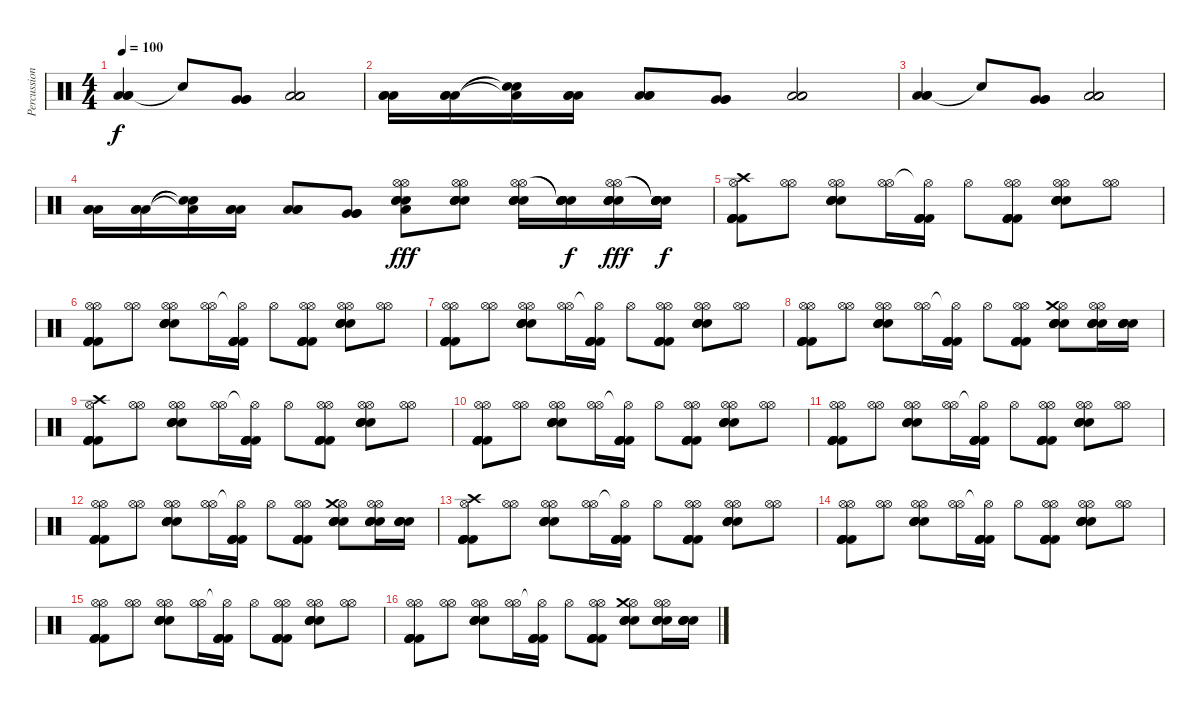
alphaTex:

\track ("Percussion" "Percussion") {instrument percussion}
\staff {score}
\articulation defaults
\ts (4 4)
\tempo 100
\clef neutral
\ks c
("Low Floor Tom (hit)" "Low Floor Tom (hit)" "Low Floor Tom (hit)").4{dy f} "Snare (hit)"{t}.8 ("Very Low Tom (hit)" "Very Low Tom (hit)" "Very Low Tom (hit)").8 ("Low Floor Tom (hit)" "Low Floor Tom (hit)" "Low Floor Tom (hit)").2 |
("Low Tom (hit)" "Low Tom (hit)" "Low Tom (hit)").16 ("Low Tom (hit)" "Low Tom (hit)" "Low Tom (hit)").16 ("Low Tom (hit)"{t} "Snare (hit)"{t} "Snare (hit)"{t}).16 ("Low Tom (hit)" "Low Tom (hit)" "Low Tom (hit)").16 ("Low Tom (hit)" "Low Tom (hit)" "Low Tom (hit)").8 ("Very Low Tom (hit)" "Very Low Tom (hit)" "Very Low Tom (hit)").8 ("Low Floor Tom (hit)" "Low Floor Tom (hit)" "Low Floor Tom (hit)").2 |
("Low Floor Tom (hit)" "Low Floor Tom (hit)" "Low Floor Tom (hit)").4 "Snare (hit)"{t}.8 ("Very Low Tom (hit)" "Very Low Tom (hit)" "Very Low Tom (hit)").8 ("Low Floor Tom (hit)" "Low Floor Tom (hit)" "Low Floor Tom (hit)").2 |
("Low Tom (hit)" "Low Tom (hit)" "Low Tom (hit)").16 ("Low Tom (hit)" "Low Tom (hit)" "Low Tom (hit)").16 ("Low Tom (hit)"{t} "Snare (hit)"{t} "Snare (hit)"{t}).16 ("Low Tom (hit)" "Low Tom (hit)" "Low Tom (hit)").16 ("Low Tom (hit)" "Low Tom (hit)" "Low Tom (hit)").8 ("Very Low Tom (hit)" "Very Low Tom (hit)" "Very Low Tom (hit)").8 ("Hi-Hat (open)" "Low Floor Tom (hit)" "Electric Snare (hit)" "Electric Snare (hit)" "Electric Snare (hit)" "Hi-Hat (open)").8{dy fff} ("Hi-Hat (open)" "Electric Snare (hit)" "Electric Snare (hit)" "Electric Snare (hit)" "Electric Snare (hit)" "Hi-Hat (open)").8 ("Hi-Hat (open)" "Electric Snare (hit)" "Electric Snare (hit)" "Electric Snare (hit)" "Electric Snare (hit)" "Hi-Hat (open)").16 ("Snare (hit)"{t} "Electric Snare (hit)" "Electric Snare (hit)" "Electric Snare (hit)" "Electric Snare (hit)" "Snare (hit)"{t}).16{dy f} ("Hi-Hat (open)" "Electric Snare (hit)" "Electric Snare (hit)" "Electric Snare (hit)" "Electric Snare (hit)" "Hi-Hat (open)").16{dy fff} ("Snare (hit)"{t} "Electric Snare (hit)" "Electric Snare (hit)" "Electric Snare (hit)" "Electric Snare (hit)" "Snare (hit)"{t}).16{dy f} |
("Hi-Hat (open)" "Kick (hit) 2" "Kick (hit) 2" "Kick (hit) 2" "Kick (hit) 2" "Crash high (hit)").8 ("Hi-Hat (open)" "Hi-Hat (open)").8 ("Hi-Hat (open)" "Electric Snare (hit)" "Electric Snare (hit)" "Electric Snare (hit)" "Electric Snare (hit)" "Hi-Hat (open)").8 ("Hi-Hat (open)" "Hi-Hat (open)").16 ("Hi-Hat (open)"{t} "Kick (hit) 2" "Kick (hit) 2" "Kick (hit) 2" "Kick (hit) 2").16 "Hi-Hat (open)".8 ("Hi-Hat (open)" "Kick (hit) 2" "Kick (hit) 2" "Kick (hit) 2" "Kick (hit) 2" "Hi-Hat (open)").8 ("Hi-Hat (open)" "Electric Snare (hit)" "Electric Snare (hit)" "Electric Snare (hit)" "Electric Snare (hit)" "Hi-Hat (open)").8 ("Hi-Hat (open)" "Hi-Hat (open)").8 |
("Hi-Hat (open)" "Kick (hit) 2" "Kick (hit) 2" "Kick (hit) 2" "Kick (hit) 2" "Hi-Hat (open)").8 ("Hi-Hat (open)" "Hi-Hat (open)").8 ("Hi-Hat (open)" "Electric Snare (hit)" "Electric Snare (hit)" "Electric Snare (hit)" "Electric Snare (hit)" "Hi-Hat (open)").8 ("Hi-Hat (open)" "Hi-Hat (open)").16 ("Hi-Hat (open)"{t} "Kick (hit) 2" "Kick (hit) 2" "Kick (hit) 2" "Kick (hit) 2").16 "Hi-Hat (open)".8 ("Hi-Hat (open)" "Kick (hit) 2" "Kick (hit) 2" "Kick (hit) 2" "Kick (hit) 2" "Hi-Hat (open)").8 ("Hi-Hat (open)" "Electric Snare (hit)" "Electric Snare (hit)" "Electric Snare (hit)" "Electric Snare (hit)" "Hi-Hat (open)").8 ("Hi-Hat (open)" "Hi-Hat (open)").8 |
("Hi-Hat (open)" "Kick (hit) 2" "Kick (hit) 2" "Kick (hit) 2" "Kick (hit) 2" "Hi-Hat (open)").8 ("Hi-Hat (open)" "Hi-Hat (open)").8 ("Hi-Hat (open)" "Electric Snare (hit)" "Electric Snare (hit)" "Electric Snare (hit)" "Electric Snare (hit)" "Hi-Hat (open)").8 ("Hi-Hat (open)" "Hi-Hat (open)").16 ("Hi-Hat (open)"{t} "Kick (hit) 2" "Kick (hit) 2" "Kick (hit) 2" "Kick (hit) 2").16 "Hi-Hat (open)".8 ("Hi-Hat (open)" "Kick (hit) 2" "Kick (hit) 2" "Kick (hit) 2" "Kick (hit) 2" "Hi-Hat (open)").8 ("Hi-Hat (open)" "Electric Snare (hit)" "Electric Snare (hit)" "Electric Snare (hit)" "Electric Snare (hit)" "Hi-Hat (open)").8 ("Hi-Hat (open)" "Hi-Hat (open)").8 |
("Hi-Hat (open)" "Kick (hit) 2" "Kick (hit) 2" "Kick (hit) 2" "Kick (hit) 2" "Hi-Hat (open)").8 ("Hi-Hat (open)" "Hi-Hat (open)").8 ("Hi-Hat (open)" "Electric Snare (hit)" "Electric Snare (hit)" "Electric Snare (hit)" "Electric Snare (hit)" "Hi-Hat (open)").8 ("Hi-Hat (open)" "Hi-Hat (open)").16 ("Hi-Hat (open)"{t} "Kick (hit) 2" "Kick (hit) 2" "Kick (hit) 2" "Kick (hit) 2").16 "Hi-Hat (open)".8 ("Hi-Hat (open)" "Kick (hit) 2" "Kick (hit) 2" "Kick (hit) 2" "Kick (hit) 2" "Hi-Hat (open)").8 ("Hi-Hat (open)" "Electric Snare (hit)" "Electric Snare (hit)" "Electric Snare (hit)" "Electric Snare (hit)" "Crash medium (hit)").8 ("Hi-Hat (open)" "Electric Snare (hit)" "Electric Snare (hit)" "Electric Snare (hit)" "Electric Snare (hit)" "Hi-Hat (open)").16 ("Electric Snare (hit)" "Electric Snare (hit)" "Electric Snare (hit)" "Electric Snare (hit)").16 |
("Hi-Hat (open)" "Kick (hit) 2" "Kick (hit) 2" "Kick (hit) 2" "Kick (hit) 2" "Crash high (hit)").8 ("Hi-Hat (open)" "Hi-Hat (open)").8 ("Hi-Hat (open)" "Electric Snare (hit)" "Electric Snare (hit)" "Electric Snare (hit)" "Electric Snare (hit)" "Hi-Hat (open)").8 ("Hi-Hat (open)" "Hi-Hat (open)").16 ("Hi-Hat (open)"{t} "Kick (hit) 2" "Kick (hit) 2" "Kick (hit) 2" "Kick (hit) 2").16 "Hi-Hat (open)".8 ("Hi-Hat (open)" "Kick (hit) 2" "Kick (hit) 2" "Kick (hit) 2" "Kick (hit) 2" "Hi-Hat (open)").8 ("Hi-Hat (open)" "Electric Snare (hit)" "Electric Snare (hit)" "Electric Snare (hit)" "Electric Snare (hit)" "Hi-Hat (open)").8 ("Hi-Hat (open)" "Hi-Hat (open)").8 |
("Hi-Hat (open)" "Kick (hit) 2" "Kick (hit) 2" "Kick (hit) 2" "Kick (hit) 2" "Hi-Hat (open)").8 ("Hi-Hat (open)" "Hi-Hat (open)").8 ("Hi-Hat (open)" "Electric Snare (hit)" "Electric Snare (hit)" "Electric Snare (hit)" "Electric Snare (hit)" "Hi-Hat (open)").8 ("Hi-Hat (open)" "Hi-Hat (open)").16 ("Hi-Hat (open)"{t} "Kick (hit) 2" "Kick (hit) 2" "Kick (hit) 2" "Kick (hit) 2").16 "Hi-Hat (open)".8 ("Hi-Hat (open)" "Kick (hit) 2" "Kick (hit) 2" "Kick (hit) 2" "Kick (hit) 2" "Hi-Hat (open)").8 ("Hi-Hat (open)" "Electric Snare (hit)" "Electric Snare (hit)" "Electric Snare (hit)" "Electric Snare (hit)" "Hi-Hat (open)").8 ("Hi-Hat (open)" "Hi-Hat (open)").8 |
("Hi-Hat (open)" "Kick (hit) 2" "Kick (hit) 2" "Kick (hit) 2" "Kick (hit) 2" "Hi-Hat (open)").8 ("Hi-Hat (open)" "Hi-Hat (open)").8 ("Hi-Hat (open)" "Electric Snare (hit)" "Electric Snare (hit)" "Electric Snare (hit)" "Electric Snare (hit)" "Hi-Hat (open)").8 ("Hi-Hat (open)" "Hi-Hat (open)").16 ("Hi-Hat (open)"{t} "Kick (hit) 2" "Kick (hit) 2" "Kick (hit) 2" "Kick (hit) 2").16 "Hi-Hat (open)".8 ("Hi-Hat (open)" "Kick (hit) 2" "Kick (hit) 2" "Kick (hit) 2" "Kick (hit) 2" "Hi-Hat (open)").8 ("Hi-Hat (open)" "Electric Snare (hit)" "Electric Snare (hit)" "Electric Snare (hit)" "Electric Snare (hit)" "Hi-Hat (open)").8 ("Hi-Hat (open)" "Hi-Hat (open)").8 |
("Hi-Hat (open)" "Kick (hit) 2" "Kick (hit) 2" "Kick (hit) 2" "Kick (hit) 2" "Hi-Hat (open)").8 ("Hi-Hat (open)" "Hi-Hat (open)").8 ("Hi-Hat (open)" "Electric Snare (hit)" "Electric Snare (hit)" "Electric Snare (hit)" "Electric Snare (hit)" "Hi-Hat (open)").8 ("Hi-Hat (open)" "Hi-Hat (open)").16 ("Hi-Hat (open)"{t} "Kick (hit) 2" "Kick (hit) 2" "Kick (hit) 2" "Kick (hit) 2").16 "Hi-Hat (open)".8 ("Hi-Hat (open)" "Kick (hit) 2" "Kick (hit) 2" "Kick (hit) 2" "Kick (hit) 2" "Hi-Hat (open)").8 ("Hi-Hat (open)" "Electric Snare (hit)" "Electric Snare (hit)" "Electric Snare (hit)" "Electric Snare (hit)" "Crash medium (hit)").8 ("Hi-Hat (open)" "Electric Snare (hit)" "Electric Snare (hit)" "Electric Snare (hit)" "Electric Snare (hit)" "Hi-Hat (open)").16 ("Electric Snare (hit)" "Electric Snare (hit)" "Electric Snare (hit)" "Electric Snare (hit)").16 |
("Hi-Hat (open)" "Kick (hit) 2" "Kick (hit) 2" "Kick (hit) 2" "Kick (hit) 2" "Crash high (hit)").8 ("Hi-Hat (open)" "Hi-Hat (open)").8 ("Hi-Hat (open)" "Electric Snare (hit)" "Electric Snare (hit)" "Electric Snare (hit)" "Electric Snare (hit)" "Hi-Hat (open)").8 ("Hi-Hat (open)" "Hi-Hat (open)").16 ("Hi-Hat (open)"{t} "Kick (hit) 2" "Kick (hit) 2" "Kick (hit) 2" "Kick (hit) 2").16 "Hi-Hat (open)".8 ("Hi-Hat (open)" "Kick (hit) 2" "Kick (hit) 2" "Kick (hit) 2" "Kick (hit) 2" "Hi-Hat (open)").8 ("Hi-Hat (open)" "Electric Snare (hit)" "Electric Snare (hit)" "Electric Snare (hit)" "Electric Snare (hit)" "Hi-Hat (open)").8 ("Hi-Hat (open)" "Hi-Hat (open)").8 |
("Hi-Hat (open)" "Kick (hit) 2" "Kick (hit) 2" "Kick (hit) 2" "Kick (hit) 2" "Hi-Hat (open)").8 ("Hi-Hat (open)" "Hi-Hat (open)").8 ("Hi-Hat (open)" "Electric Snare (hit)" "Electric Snare (hit)" "Electric Snare (hit)" "Electric Snare (hit)" "Hi-Hat (open)").8 ("Hi-Hat (open)" "Hi-Hat (open)").16 ("Hi-Hat (open)"{t} "Kick (hit) 2" "Kick (hit) 2" "Kick (hit) 2" "Kick (hit) 2").16 "Hi-Hat (open)".8 ("Hi-Hat (open)" "Kick (hit) 2" "Kick (hit) 2" "Kick (hit) 2" "Kick (hit) 2" "Hi-Hat (open)").8 ("Hi-Hat (open)" "Electric Snare (hit)" "Electric Snare (hit)" "Electric Snare (hit)" "Electric Snare (hit)" "Hi-Hat (open)").8 ("Hi-Hat (open)" "Hi-Hat (open)").8 |
("Hi-Hat (open)" "Kick (hit) 2" "Kick (hit) 2" "Kick (hit) 2" "Kick (hit) 2" "Hi-Hat (open)").8 ("Hi-Hat (open)" "Hi-Hat (open)").8 ("Hi-Hat (open)" "Electric Snare (hit)" "Electric Snare (hit)" "Electric Snare (hit)" "Electric Snare (hit)" "Hi-Hat (open)").8 ("Hi-Hat (open)" "Hi-Hat (open)").16 ("Hi-Hat (open)"{t} "Kick (hit) 2" "Kick (hit) 2" "Kick (hit) 2" "Kick (hit) 2").16 "Hi-Hat (open)".8 ("Hi-Hat (open)" "Kick (hit) 2" "Kick (hit) 2" "Kick (hit) 2" "Kick (hit) 2" "Hi-Hat (open)").8 ("Hi-Hat (open)" "Electric Snare (hit)" "Electric Snare (hit)" "Electric Snare (hit)" "Electric Snare (hit)" "Hi-Hat (open)").8 ("Hi-Hat (open)" "Hi-Hat (open)").8 |
("Hi-Hat (open)" "Kick (hit) 2" "Kick (hit) 2" "Kick (hit) 2" "Kick (hit) 2" "Hi-Hat (open)").8 ("Hi-Hat (open)" "Hi-Hat (open)").8 ("Hi-Hat (open)" "Electric Snare (hit)" "Electric Snare (hit)" "Electric Snare (hit)" "Electric Snare (hit)" "Hi-Hat (open)").8 ("Hi-Hat (open)" "Hi-Hat (open)").16 ("Hi-Hat (open)"{t} "Kick (hit) 2" "Kick (hit) 2" "Kick (hit) 2" "Kick (hit) 2").16 "Hi-Hat (open)".8 ("Hi-Hat (open)" "Kick (hit) 2" "Kick (hit) 2" "Kick (hit) 2" "Kick (hit) 2" "Hi-Hat (open)").8 ("Hi-Hat (open)" "Electric Snare (hit)" "Electric Snare (hit)" "Electric Snare (hit)" "Electric Snare (hit)" "Crash medium (hit)").8 ("Hi-Hat (open)" "Electric Snare (hit)" "Electric Snare (hit)" "Electric Snare (hit)" "Electric Snare (hit)" "Hi-Hat (open)").16 ("Electric Snare (hit)" "Electric Snare (hit)" "Electric Snare (hit)" "Electric Snare (hit)").16
